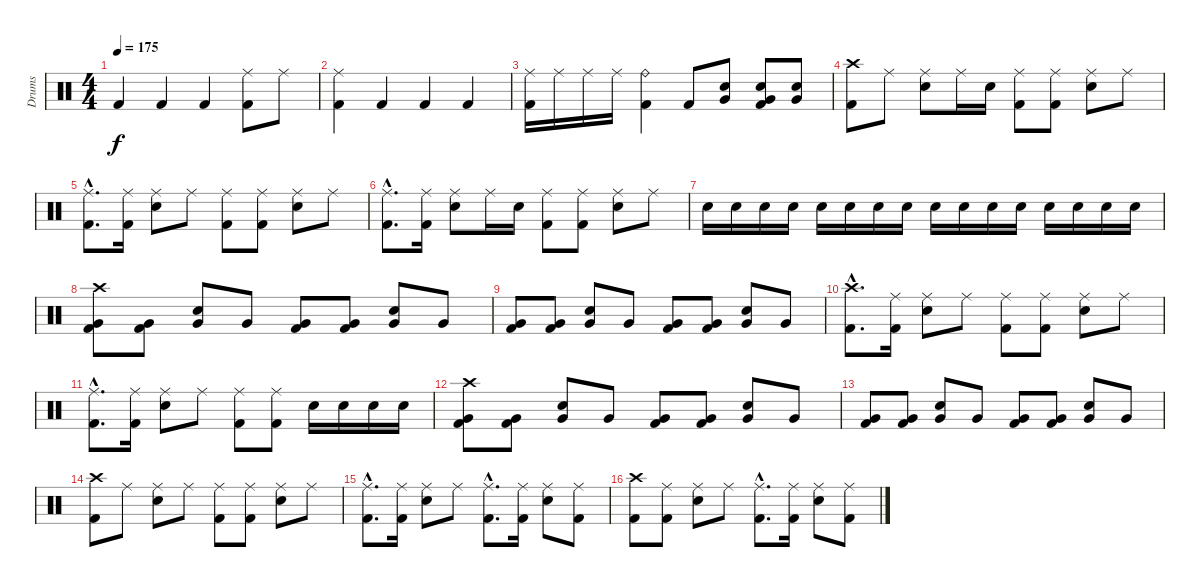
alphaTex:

\track ("Drums" "Drums") {instrument percussion}
\staff {score}
\articulation defaults
\ts (4 4)
\tempo 175
\clef neutral
\ks c "Kick (hit) 2".4{dy f} "Kick (hit) 2".4 "Kick (hit) 2".4
("Ride (middle)" "Kick (hit) 2").8 "Ride (middle)".8 |
("Ride (middle)" "Kick (hit) 2").4 "Kick (hit) 2".4 "Kick (hit) 2".4 "Kick (hit) 2".4 |
("Ride (middle)" "Kick (hit) 2").16 "Ride (middle)".16 "Ride (middle)".16 "Ride (middle)".16 ("Ride (bell)" "Kick (hit) 2").4 "Kick (hit) 2".8 ("Snare (hit) 2" "Very Low Tom (hit)").8 ("Snare (hit) 2" "Very Low Tom (hit)" "Kick (hit) 2").8 ("Snare (hit) 2" "Very Low Tom (hit)").8 |
("Crash high (hit)" "Kick (hit) 2").8 "Ride (middle)".8 ("Ride (middle)" "Snare (hit) 2").8 "Ride (middle)".16 "Snare (hit) 2".16 ("Ride (middle)" "Kick (hit) 2").8 ("Ride (middle)" "Kick (hit) 2").8 ("Ride (middle)" "Snare (hit) 2").8 "Ride (middle)".8 |
("Ride (middle)"{hac} "Kick (hit) 2"{hac}).8{d} ("Ride (middle)" "Kick (hit) 2").16 ("Ride (middle)" "Snare (hit) 2").8 "Ride (middle)".8 ("Ride (middle)" "Kick (hit) 2").8 ("Ride (middle)" "Kick (hit) 2").8 ("Ride (middle)" "Snare (hit) 2").8 "Ride (middle)".8 |
("Ride (middle)"{hac} "Kick (hit) 2"{hac}).8{d} ("Ride (middle)" "Kick (hit) 2").16 ("Ride (middle)" "Snare (hit) 2").8 "Ride (middle)".16 "Snare (hit) 2".16 ("Ride (middle)" "Kick (hit) 2").8 ("Ride (middle)" "Kick (hit) 2").8 ("Ride (middle)" "Snare (hit) 2").8 "Ride (middle)".8 |
"Snare (hit) 2".16 "Snare (hit) 2".16 "Snare (hit) 2".16 "Snare (hit) 2".16 "Snare (hit) 2".16 "Snare (hit) 2".16 "Snare (hit) 2".16 "Snare (hit) 2".16 "Snare (hit) 2".16 "Snare (hit) 2".16 "Snare (hit) 2".16 "Snare (hit) 2".16 "Snare (hit) 2".16 "Snare (hit) 2".16 "Snare (hit) 2".16 "Snare (hit) 2".16 |
("Crash high (hit)" "Very Low Tom (hit)" "Kick (hit) 2").8 ("Very Low Tom (hit)" "Kick (hit) 2").8 ("Snare (hit) 2" "Very Low Tom (hit)").8 "Very Low Tom (hit)".8 ("Very Low Tom (hit)" "Kick (hit) 2").8 ("Very Low Tom (hit)" "Kick (hit) 2").8 ("Snare (hit) 2" "Very Low Tom (hit)").8 "Very Low Tom (hit)".8 |
("Very Low Tom (hit)" "Kick (hit) 2").8 ("Very Low Tom (hit)" "Kick (hit) 2").8 ("Snare (hit) 2" "Very Low Tom (hit)").8 "Very Low Tom (hit)".8 ("Very Low Tom (hit)" "Kick (hit) 2").8 ("Very Low Tom (hit)" "Kick (hit) 2").8 ("Snare (hit) 2" "Very Low Tom (hit)").8 "Very Low Tom (hit)".8 |
("Crash high (hit)"{hac} "Kick (hit) 2"{hac}).8{d} ("Ride (middle)" "Kick (hit) 2").16 ("Ride (middle)" "Snare (hit) 2").8 "Ride (middle)".8 ("Ride (middle)" "Kick (hit) 2").8 ("Ride (middle)" "Kick (hit) 2").8 ("Ride (middle)" "Snare (hit) 2").8 "Ride (middle)".8 |
("Ride (middle)"{hac} "Kick (hit) 2"{hac}).8{d} ("Ride (middle)" "Kick (hit) 2").16 ("Ride (middle)" "Snare (hit) 2").8 "Ride (middle)".8 ("Ride (middle)" "Kick (hit) 2").8 ("Ride (middle)" "Kick (hit) 2").8 "Snare (hit) 2".16 "Snare (hit) 2".16 "Snare (hit) 2".16 "Snare (hit) 2".16 |
("Crash high (hit)" "Very Low Tom (hit)" "Kick (hit) 2").8 ("Very Low Tom (hit)" "Kick (hit) 2").8 ("Snare (hit) 2" "Very Low Tom (hit)").8 "Very Low Tom (hit)".8 ("Very Low Tom (hit)" "Kick (hit) 2").8 ("Very Low Tom (hit)" "Kick (hit) 2").8 ("Snare (hit) 2" "Very Low Tom (hit)").8 "Very Low Tom (hit)".8 |
("Very Low Tom (hit)" "Kick (hit) 2").8 ("Very Low Tom (hit)" "Kick (hit) 2").8 ("Snare (hit) 2" "Very Low Tom (hit)").8 "Very Low Tom (hit)".8 ("Very Low Tom (hit)" "Kick (hit) 2").8 ("Very Low Tom (hit)" "Kick (hit) 2").8 ("Snare (hit) 2" "Very Low Tom (hit)").8 "Very Low Tom (hit)".8 |
("Crash high (hit)" "Kick (hit) 2").8 "Ride (middle)".8 ("Ride (middle)" "Snare (hit) 2").8 "Ride (middle)".8 ("Ride (middle)" "Kick (hit) 2").8 ("Ride (middle)" "Kick (hit) 2").8 ("Ride (middle)" "Snare (hit) 2").8 "Ride (middle)".8 |
("Ride (middle)"{hac} "Kick (hit) 2"{hac}).8{d} ("Ride (middle)" "Kick (hit) 2").16 ("Ride (middle)" "Snare (hit) 2").8 "Ride (middle)".8 ("Ride (middle)"{hac} "Kick (hit) 2"{hac}).8{d} ("Ride (middle)" "Kick (hit) 2").16 ("Ride (middle)" "Snare (hit) 2").8 ("Ride (middle)" "Kick (hit) 2").8 |
("Crash high (hit)" "Kick (hit) 2").8 ("Ride (middle)" "Kick (hit) 2").8 ("Ride (middle)" "Snare (hit) 2").8 "Ride (middle)".8 ("Ride (middle)"{hac} "Kick (hit) 2"{hac}).8{d} ("Ride (middle)" "Kick (hit) 2").16 ("Ride (middle)" "Snare (hit) 2").8 ("Ride (middle)" "Kick (hit) 2").8
